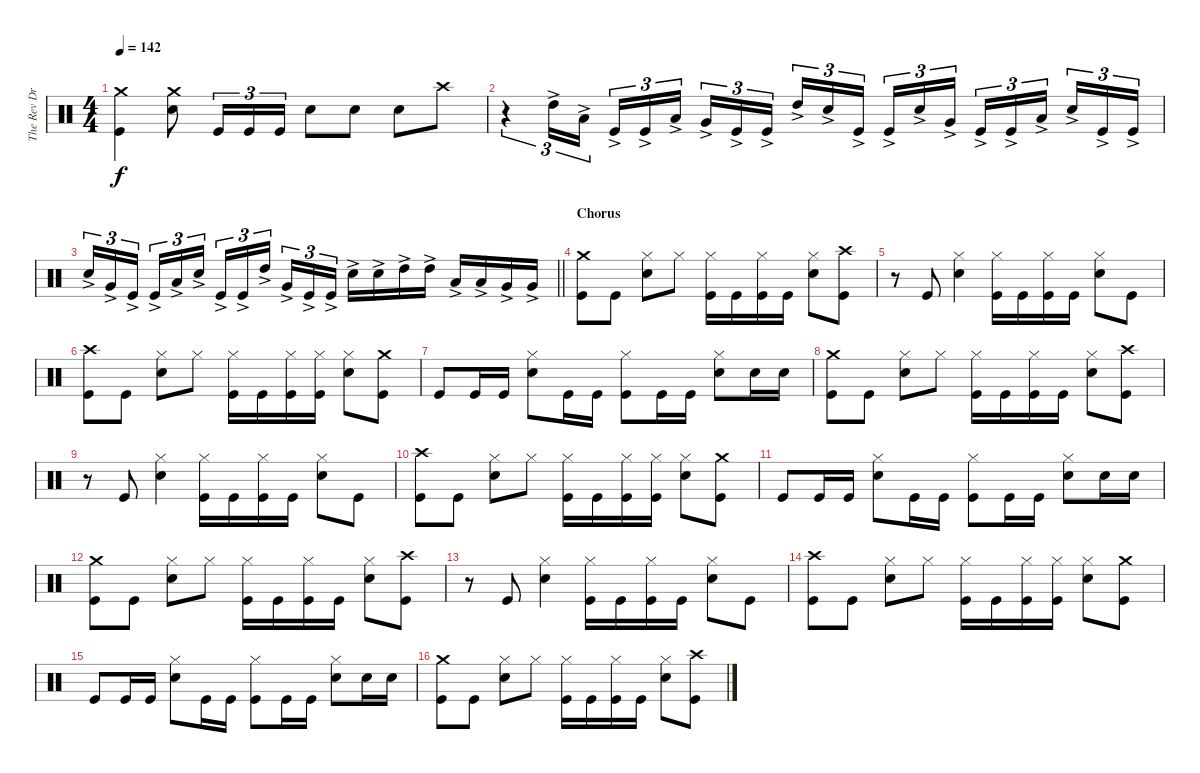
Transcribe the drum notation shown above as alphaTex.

\track ("The Rev Drums" "The Rev Dr") {instrument percussion}
\staff {score}
\articulation defaults
\ts (4 4)
\tempo 142
\clef neutral
\ks c
("Crash medium (hit)" "Kick (hit)").4{dy f} ("Crash medium (hit)" "Electric Snare (hit)").8 "Kick (hit)".16{tu (3 2)} "Kick (hit)".16{tu (3 2)} "Kick (hit)".16{tu (3 2)} "Electric Snare (hit)".8 "Electric Snare (hit)".8 "Electric Snare (hit)".8 "Crash high (hit)".8 |
r.4{tu (3 2)} "High Tom (hit)"{ac}.16{tu (3 2)} "Low Tom (hit)"{ac}.16{tu (3 2)} "Kick (hit)"{ac}.16{tu (3 2)} "Kick (hit)"{ac}.16{tu (3 2)} "Low Tom (hit)"{ac}.16{tu (3 2) beam splitsecondary} "Very Low Tom (hit)"{ac}.16{tu (3 2)} "Kick (hit)"{ac}.16{tu (3 2)} "Kick (hit)"{ac}.16{tu (3 2)} "High Tom (hit)"{ac}.16{tu (3 2)} "Electric Snare (hit)"{ac}.16{tu (3 2)} "Kick (hit)"{ac}.16{tu (3 2) beam splitsecondary} "Kick (hit)"{ac}.16{tu (3 2)} "Electric Snare (hit)"{ac}.16{tu (3 2)} "Very Low Tom (hit)"{ac}.16{tu (3 2)} "Kick (hit)"{ac}.16{tu (3 2)} "Kick (hit)"{ac}.16{tu (3 2)} "Low Tom (hit)"{ac}.16{tu (3 2) beam splitsecondary} "Electric Snare (hit)"{ac}.16{tu (3 2)} "Kick (hit)"{ac}.16{tu (3 2)} "Kick (hit)"{ac}.16{tu (3 2)} |
\barLineRight lightlight "Electric Snare (hit)"{ac}.16{tu (3 2)} "Very Low Tom (hit)"{ac}.16{tu (3 2)} "Kick (hit)"{ac}.16{tu (3 2) beam splitsecondary} "Kick (hit)"{ac}.16{tu (3 2)} "Low Tom (hit)"{ac}.16{tu (3 2)} "Electric Snare (hit)"{ac}.16{tu (3 2)} "Kick (hit)"{ac}.16{tu (3 2)} "Kick (hit)"{ac}.16{tu (3 2)} "High Tom (hit)"{ac}.16{tu (3 2) beam splitsecondary} "Very Low Tom (hit)"{ac}.16{tu (3 2)} "Kick (hit)"{ac}.16{tu (3 2)} "Kick (hit)"{ac}.16{tu (3 2)} "Electric Snare (hit)"{ac}.16 "Electric Snare (hit)"{ac}.16 "High Tom (hit)"{ac}.16 "High Tom (hit)"{ac}.16 "Low Tom (hit)"{ac}.16 "Low Tom (hit)"{ac}.16 "Very Low Tom (hit)"{ac}.16 "Very Low Tom (hit)"{ac}.16
|
\section ("" "Chorus")
("Crash medium (hit)" "Kick (hit)").8 "Kick (hit)".8 ("Hi-Hat (closed)" "Electric Snare (hit)").8 "Hi-Hat (closed)".8 ("Hi-Hat (closed)" "Kick (hit)").16 "Kick (hit)".16 ("Hi-Hat (closed)" "Kick (hit)").16 "Kick (hit)".16 ("Hi-Hat (closed)" "Electric Snare (hit)").8 ("Crash high (hit)" "Kick (hit)").8 |
r.8 "Kick (hit)".8 ("Hi-Hat (closed)" "Electric Snare (hit)").4 ("Hi-Hat (closed)" "Kick (hit)").16 "Kick (hit)".16 ("Hi-Hat (closed)" "Kick (hit)").16 "Kick (hit)".16 ("Hi-Hat (closed)" "Electric Snare (hit)").8 "Kick (hit)".8 |
("Crash high (hit)" "Kick (hit)").8 "Kick (hit)".8 ("Hi-Hat (closed)" "Electric Snare (hit)").8 "Hi-Hat (closed)".8 ("Hi-Hat (closed)" "Kick (hit)").16 "Kick (hit)".16 ("Hi-Hat (closed)" "Kick (hit)").16 ("Hi-Hat (closed)" "Kick (hit)").16 ("Hi-Hat (closed)" "Electric Snare (hit)").8 ("Crash medium (hit)" "Kick (hit)").8 |
"Kick (hit)".8 "Kick (hit)".16 "Kick (hit)".16 ("Hi-Hat (closed)" "Electric Snare (hit)").8 "Kick (hit)".16 "Kick (hit)".16 ("Hi-Hat (closed)" "Kick (hit)").8 "Kick (hit)".16 "Kick (hit)".16 ("Hi-Hat (closed)" "Electric Snare (hit)").8 "Electric Snare (hit)".16 "Electric Snare (hit)".16 |
("Crash medium (hit)" "Kick (hit)").8 "Kick (hit)".8 ("Hi-Hat (closed)" "Electric Snare (hit)").8 "Hi-Hat (closed)".8 ("Hi-Hat (closed)" "Kick (hit)").16 "Kick (hit)".16 ("Hi-Hat (closed)" "Kick (hit)").16 "Kick (hit)".16 ("Hi-Hat (closed)" "Electric Snare (hit)").8 ("Crash high (hit)" "Kick (hit)").8 |
r.8 "Kick (hit)".8 ("Hi-Hat (closed)" "Electric Snare (hit)").4 ("Hi-Hat (closed)" "Kick (hit)").16 "Kick (hit)".16 ("Hi-Hat (closed)" "Kick (hit)").16 "Kick (hit)".16 ("Hi-Hat (closed)" "Electric Snare (hit)").8 "Kick (hit)".8 |
("Crash high (hit)" "Kick (hit)").8 "Kick (hit)".8 ("Hi-Hat (closed)" "Electric Snare (hit)").8 "Hi-Hat (closed)".8 ("Hi-Hat (closed)" "Kick (hit)").16 "Kick (hit)".16 ("Hi-Hat (closed)" "Kick (hit)").16 ("Hi-Hat (closed)" "Kick (hit)").16 ("Hi-Hat (closed)" "Electric Snare (hit)").8 ("Crash medium (hit)" "Kick (hit)").8 |
"Kick (hit)".8 "Kick (hit)".16 "Kick (hit)".16 ("Hi-Hat (closed)" "Electric Snare (hit)").8 "Kick (hit)".16 "Kick (hit)".16 ("Hi-Hat (closed)" "Kick (hit)").8 "Kick (hit)".16 "Kick (hit)".16 ("Hi-Hat (closed)" "Electric Snare (hit)").8 "Electric Snare (hit)".16 "Electric Snare (hit)".16 |
("Crash medium (hit)" "Kick (hit)").8 "Kick (hit)".8 ("Hi-Hat (closed)" "Electric Snare (hit)").8 "Hi-Hat (closed)".8 ("Hi-Hat (closed)" "Kick (hit)").16 "Kick (hit)".16 ("Hi-Hat (closed)" "Kick (hit)").16 "Kick (hit)".16 ("Hi-Hat (closed)" "Electric Snare (hit)").8 ("Crash high (hit)" "Kick (hit)").8 |
r.8 "Kick (hit)".8 ("Hi-Hat (closed)" "Electric Snare (hit)").4 ("Hi-Hat (closed)" "Kick (hit)").16 "Kick (hit)".16 ("Hi-Hat (closed)" "Kick (hit)").16 "Kick (hit)".16 ("Hi-Hat (closed)" "Electric Snare (hit)").8 "Kick (hit)".8 |
("Crash high (hit)" "Kick (hit)").8 "Kick (hit)".8 ("Hi-Hat (closed)" "Electric Snare (hit)").8 "Hi-Hat (closed)".8 ("Hi-Hat (closed)" "Kick (hit)").16 "Kick (hit)".16 ("Hi-Hat (closed)" "Kick (hit)").16 ("Hi-Hat (closed)" "Kick (hit)").16 ("Hi-Hat (closed)" "Electric Snare (hit)").8 ("Crash medium (hit)" "Kick (hit)").8 |
"Kick (hit)".8 "Kick (hit)".16 "Kick (hit)".16 ("Hi-Hat (closed)" "Electric Snare (hit)").8 "Kick (hit)".16 "Kick (hit)".16 ("Hi-Hat (closed)" "Kick (hit)").8 "Kick (hit)".16 "Kick (hit)".16 ("Hi-Hat (closed)" "Electric Snare (hit)").8 "Electric Snare (hit)".16 "Electric Snare (hit)".16 |
("Crash medium (hit)" "Kick (hit)").8 "Kick (hit)".8 ("Hi-Hat (closed)" "Electric Snare (hit)").8 "Hi-Hat (closed)".8 ("Hi-Hat (closed)" "Kick (hit)").16 "Kick (hit)".16 ("Hi-Hat (closed)" "Kick (hit)").16 "Kick (hit)".16 ("Hi-Hat (closed)" "Electric Snare (hit)").8 ("Crash high (hit)" "Kick (hit)").8
